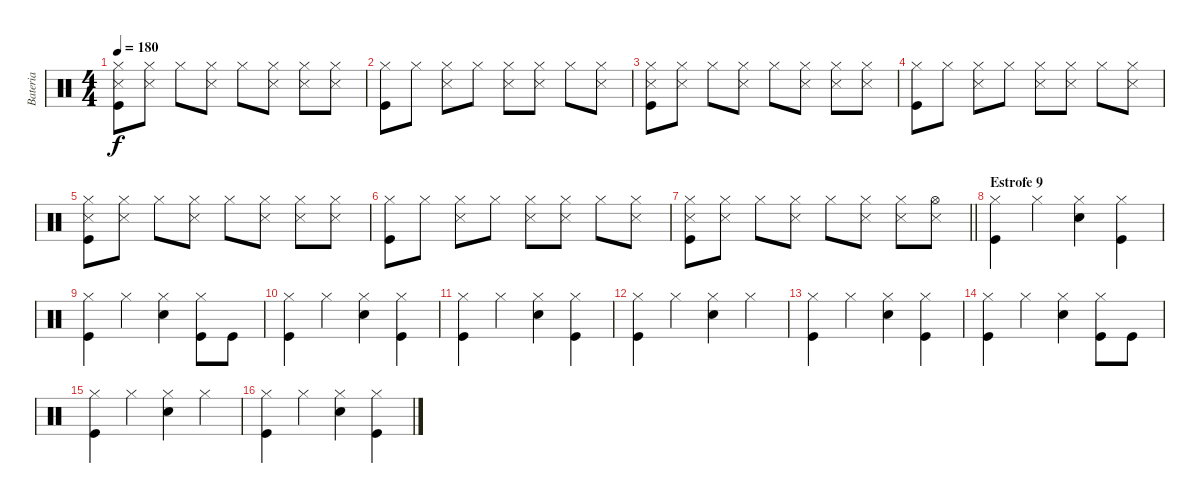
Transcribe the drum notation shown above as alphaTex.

\track ("Bateria" "Bateria") {instrument percussion}
\staff {score}
\articulation defaults
\ts (4 4)
\tempo 180
\clef neutral
\ks c
("Hi-Hat (closed)" "Snare (side stick) 3" "Kick (hit)").8{dy f} ("Hi-Hat (closed)" "Snare (side stick) 3").8 "Hi-Hat (closed)".8 ("Hi-Hat (closed)" "Snare (side stick) 3").8 "Hi-Hat (closed)".8 ("Hi-Hat (closed)" "Snare (side stick) 3").8 ("Hi-Hat (closed)" "Snare (side stick) 3").8 ("Hi-Hat (closed)" "Snare (side stick) 3").8 |
("Hi-Hat (closed)" "Kick (hit)").8 "Hi-Hat (closed)".8 ("Hi-Hat (closed)" "Snare (side stick) 3").8 "Hi-Hat (closed)".8 ("Hi-Hat (closed)" "Snare (side stick) 3").8 ("Hi-Hat (closed)" "Snare (side stick) 3").8 "Hi-Hat (closed)".8 ("Hi-Hat (closed)" "Snare (side stick) 3").8 |
("Hi-Hat (closed)" "Snare (side stick) 3" "Kick (hit)").8 ("Hi-Hat (closed)" "Snare (side stick) 3").8 "Hi-Hat (closed)".8 ("Hi-Hat (closed)" "Snare (side stick) 3").8 "Hi-Hat (closed)".8 ("Hi-Hat (closed)" "Snare (side stick) 3").8 ("Hi-Hat (closed)" "Snare (side stick) 3").8 ("Hi-Hat (closed)" "Snare (side stick) 3").8 |
("Hi-Hat (closed)" "Kick (hit)").8 "Hi-Hat (closed)".8 ("Hi-Hat (closed)" "Snare (side stick) 3").8 "Hi-Hat (closed)".8 ("Hi-Hat (closed)" "Snare (side stick) 3").8 ("Hi-Hat (closed)" "Snare (side stick) 3").8 "Hi-Hat (closed)".8 ("Hi-Hat (closed)" "Snare (side stick) 3").8 |
("Hi-Hat (closed)" "Snare (side stick) 3" "Kick (hit)").8 ("Hi-Hat (closed)" "Snare (side stick) 3").8 "Hi-Hat (closed)".8 ("Hi-Hat (closed)" "Snare (side stick) 3").8 "Hi-Hat (closed)".8 ("Hi-Hat (closed)" "Snare (side stick) 3").8 ("Hi-Hat (closed)" "Snare (side stick) 3").8 ("Hi-Hat (closed)" "Snare (side stick) 3").8 |
("Hi-Hat (closed)" "Kick (hit)").8 "Hi-Hat (closed)".8 ("Hi-Hat (closed)" "Snare (side stick) 3").8 "Hi-Hat (closed)".8 ("Hi-Hat (closed)" "Snare (side stick) 3").8 ("Hi-Hat (closed)" "Snare (side stick) 3").8 "Hi-Hat (closed)".8 ("Hi-Hat (closed)" "Snare (side stick) 3").8 |
\barLineRight lightlight
("Hi-Hat (closed)" "Snare (side stick) 3" "Kick (hit)").8 ("Hi-Hat (closed)" "Snare (side stick) 3").8 "Hi-Hat (closed)".8 ("Hi-Hat (closed)" "Snare (side stick) 3").8 "Hi-Hat (closed)".8 ("Hi-Hat (closed)" "Snare (side stick) 3").8 ("Hi-Hat (closed)" "Snare (side stick) 3").8 ("Hi-Hat (open)" "Snare (side stick) 3").8 |
\section ("" "Estrofe 9")
("Hi-Hat (closed)" "Kick (hit)").4 "Hi-Hat (closed)".4 ("Hi-Hat (closed)" "Snare (hit) 2").4 ("Hi-Hat (closed)" "Kick (hit)").4 |
("Hi-Hat (closed)" "Kick (hit)").4 "Hi-Hat (closed)".4 ("Hi-Hat (closed)" "Snare (hit) 2").4 ("Hi-Hat (closed)" "Kick (hit)").8 "Kick (hit)".8 |
("Hi-Hat (closed)" "Kick (hit)").4 "Hi-Hat (closed)".4 ("Hi-Hat (closed)" "Snare (hit) 2").4 ("Hi-Hat (closed)" "Kick (hit)").4 |
("Hi-Hat (closed)" "Kick (hit)").4 "Hi-Hat (closed)".4 ("Hi-Hat (closed)" "Snare (hit) 2").4 ("Hi-Hat (closed)" "Kick (hit)").4 |
("Hi-Hat (closed)" "Kick (hit)").4 "Hi-Hat (closed)".4 ("Hi-Hat (closed)" "Snare (hit) 2").4 "Hi-Hat (closed)".4 |
("Hi-Hat (closed)" "Kick (hit)").4 "Hi-Hat (closed)".4 ("Hi-Hat (closed)" "Snare (hit) 2").4 ("Hi-Hat (closed)" "Kick (hit)").4 |
("Hi-Hat (closed)" "Kick (hit)").4 "Hi-Hat (closed)".4 ("Hi-Hat (closed)" "Snare (hit) 2").4 ("Hi-Hat (closed)" "Kick (hit)").8 "Kick (hit)".8 |
("Hi-Hat (closed)" "Kick (hit)").4 "Hi-Hat (closed)".4 ("Hi-Hat (closed)" "Snare (hit) 2").4 "Hi-Hat (closed)".4 |
("Hi-Hat (closed)" "Kick (hit)").4 "Hi-Hat (closed)".4 ("Hi-Hat (closed)" "Snare (hit) 2").4 ("Hi-Hat (closed)" "Kick (hit)").4
